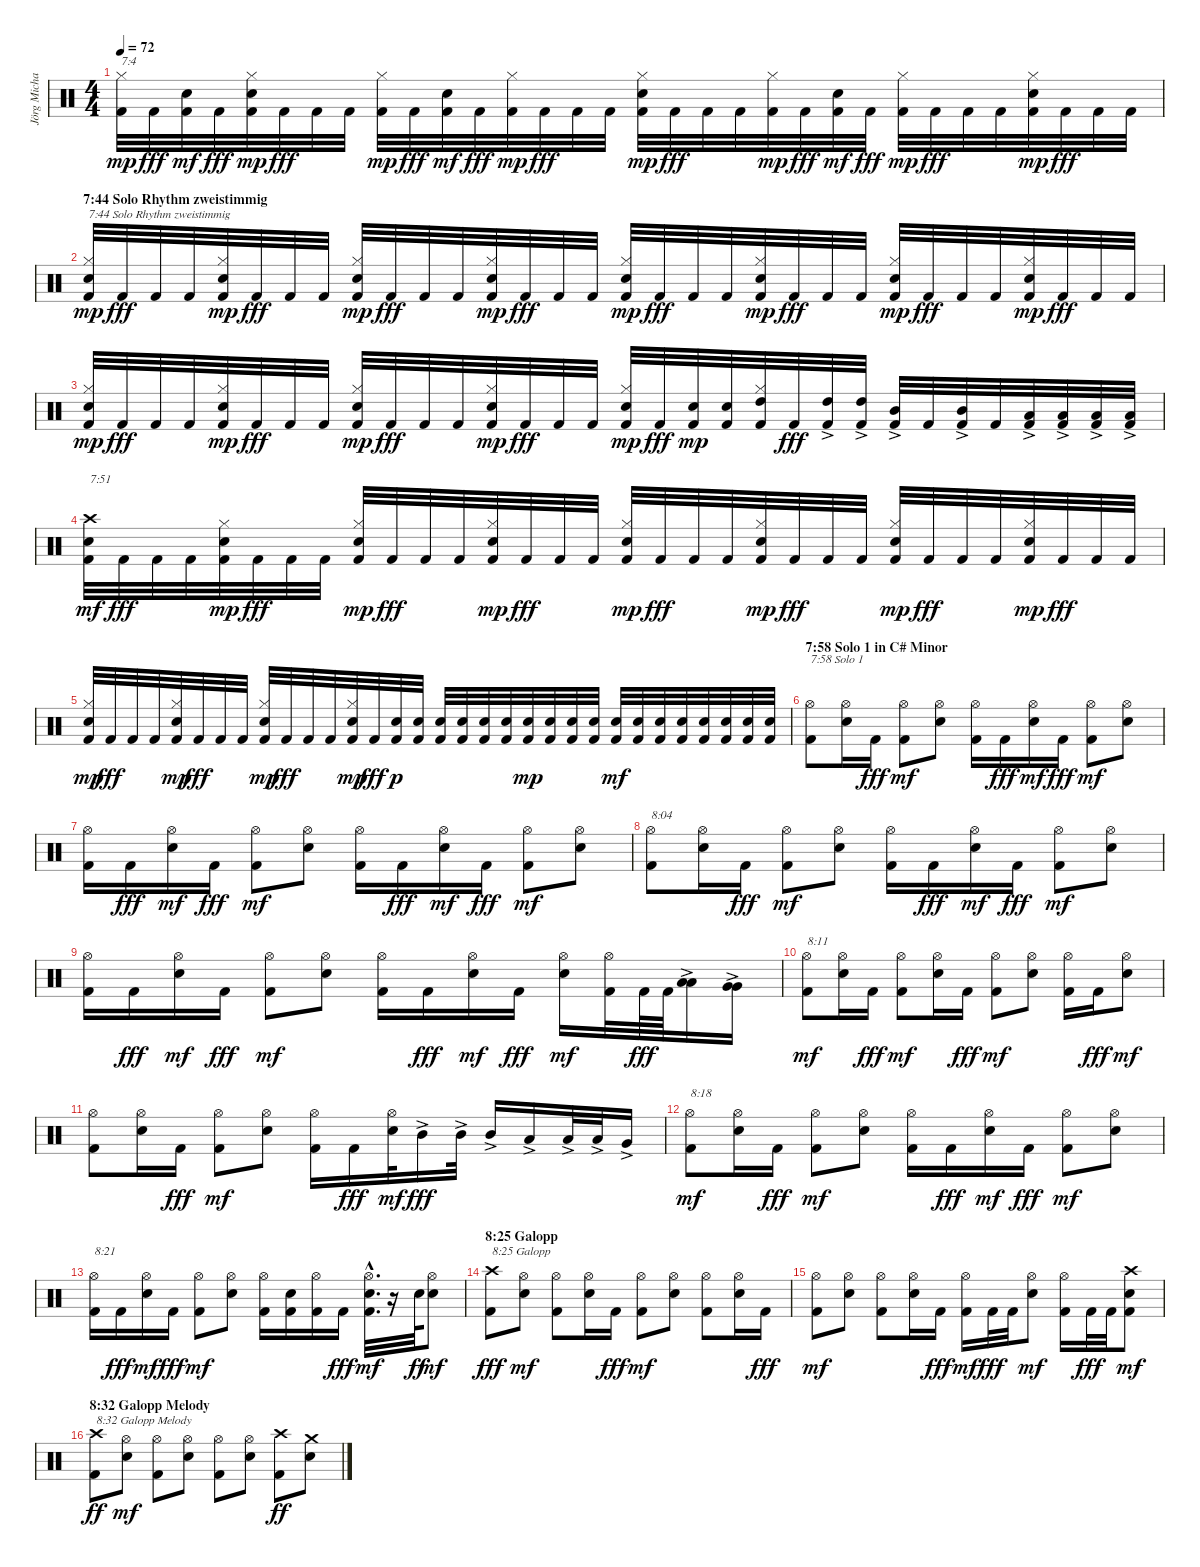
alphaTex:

\track ("Jörg Michael" "Jörg Micha") {instrument percussion}
\staff {score}
\articulation defaults
\ts (4 4)
\tempo 72
\clef neutral
\ks c
("Kick (hit) 2" "Hi-Hat (closed)").32{txt "7:4" dy mp} "Kick (hit) 2".32{dy fff} ("Kick (hit) 2" "Snare (hit) 2").32{dy mf} "Kick (hit) 2".32{dy fff} ("Kick (hit) 2" "Snare (hit) 2" "Hi-Hat (closed)").32{dy mp} "Kick (hit) 2".32{dy fff} "Kick (hit) 2".32 "Kick (hit) 2".32 ("Kick (hit) 2" "Hi-Hat (closed)").32{dy mp} "Kick (hit) 2".32{dy fff} ("Kick (hit) 2" "Snare (hit) 2").32{dy mf} "Kick (hit) 2".32{dy fff} ("Kick (hit) 2" "Hi-Hat (closed)").32{dy mp} "Kick (hit) 2".32{dy fff} "Kick (hit) 2".32 "Kick (hit) 2".32 ("Kick (hit) 2" "Snare (hit) 2" "Hi-Hat (closed)").32{dy mp} "Kick (hit) 2".32{dy fff} "Kick (hit) 2".32 "Kick (hit) 2".32 ("Kick (hit) 2" "Hi-Hat (closed)").32{dy mp} "Kick (hit) 2".32{dy fff} ("Kick (hit) 2" "Snare (hit) 2").32{dy mf} "Kick (hit) 2".32{dy fff} ("Kick (hit) 2" "Hi-Hat (closed)").32{dy mp} "Kick (hit) 2".32{dy fff} "Kick (hit) 2".32 "Kick (hit) 2".32 ("Kick (hit) 2" "Snare (hit) 2" "Hi-Hat (closed)").32{dy mp} "Kick (hit) 2".32{dy fff} "Kick (hit) 2".32 "Kick (hit) 2".32 |
\section ("" "7:44 Solo Rhythm zweistimmig")
("Kick (hit) 2" "Snare (hit) 2" "Hi-Hat (closed)").32{txt "7:44 Solo Rhythm zweistimmig" dy mp} "Kick (hit) 2".32{dy fff} "Kick (hit) 2".32 "Kick (hit) 2".32 ("Kick (hit) 2" "Snare (hit) 2" "Hi-Hat (closed)").32{dy mp} "Kick (hit) 2".32{dy fff} "Kick (hit) 2".32 "Kick (hit) 2".32 ("Kick (hit) 2" "Snare (hit) 2" "Hi-Hat (closed)").32{dy mp} "Kick (hit) 2".32{dy fff} "Kick (hit) 2".32 "Kick (hit) 2".32 ("Kick (hit) 2" "Snare (hit) 2" "Hi-Hat (closed)").32{dy mp} "Kick (hit) 2".32{dy fff} "Kick (hit) 2".32 "Kick (hit) 2".32 ("Kick (hit) 2" "Snare (hit) 2" "Hi-Hat (closed)").32{dy mp} "Kick (hit) 2".32{dy fff} "Kick (hit) 2".32 "Kick (hit) 2".32 ("Kick (hit) 2" "Snare (hit) 2" "Hi-Hat (closed)").32{dy mp} "Kick (hit) 2".32{dy fff} "Kick (hit) 2".32 "Kick (hit) 2".32 ("Kick (hit) 2" "Snare (hit) 2" "Hi-Hat (closed)").32{dy mp} "Kick (hit) 2".32{dy fff} "Kick (hit) 2".32 "Kick (hit) 2".32 ("Kick (hit) 2" "Snare (hit) 2" "Hi-Hat (closed)").32{dy mp} "Kick (hit) 2".32{dy fff} "Kick (hit) 2".32 "Kick (hit) 2".32 |
("Kick (hit) 2" "Snare (hit) 2" "Hi-Hat (closed)").32{dy mp} "Kick (hit) 2".32{dy fff} "Kick (hit) 2".32 "Kick (hit) 2".32 ("Kick (hit) 2" "Snare (hit) 2" "Hi-Hat (closed)").32{dy mp} "Kick (hit) 2".32{dy fff} "Kick (hit) 2".32 "Kick (hit) 2".32 ("Kick (hit) 2" "Snare (hit) 2" "Hi-Hat (closed)").32{dy mp} "Kick (hit) 2".32{dy fff} "Kick (hit) 2".32 "Kick (hit) 2".32 ("Kick (hit) 2" "Snare (hit) 2" "Hi-Hat (closed)").32{dy mp} "Kick (hit) 2".32{dy fff} "Kick (hit) 2".32 "Kick (hit) 2".32 ("Kick (hit) 2" "Snare (hit) 2" "Hi-Hat (closed)").32{dy mp} "Kick (hit) 2".32{dy fff} ("Kick (hit) 2" "Snare (hit) 2").32{dy mp} ("Kick (hit) 2" "Snare (hit) 2").32 ("Kick (hit) 2" "High Tom (hit)" "Hi-Hat (closed)").32 "Kick (hit) 2".32{dy fff} ("Kick (hit) 2" "High Tom (hit)"{ac}).32 ("Kick (hit) 2" "High Tom (hit)"{ac}).32 ("Kick (hit) 2" "Mid Tom (hit)"{ac}).32 "Kick (hit) 2".32 ("Kick (hit) 2" "Mid Tom (hit)"{ac}).32 "Kick (hit) 2".32 ("Kick (hit) 2" "Low Tom (hit)"{ac}).32 ("Kick (hit) 2" "Low Tom (hit)"{ac}).32 ("Kick (hit) 2" "Low Tom (hit)"{ac}).32 ("Kick (hit) 2" "Low Tom (hit)"{ac}).32 |
("Kick (hit) 2" "Snare (hit) 2" "Crash high (hit)").32{txt "7:51" dy mf} "Kick (hit) 2".32{dy fff} "Kick (hit) 2".32 "Kick (hit) 2".32 ("Kick (hit) 2" "Snare (hit) 2" "Hi-Hat (closed)").32{dy mp} "Kick (hit) 2".32{dy fff} "Kick (hit) 2".32 "Kick (hit) 2".32 ("Kick (hit) 2" "Snare (hit) 2" "Hi-Hat (closed)").32{dy mp} "Kick (hit) 2".32{dy fff} "Kick (hit) 2".32 "Kick (hit) 2".32 ("Kick (hit) 2" "Snare (hit) 2" "Hi-Hat (closed)").32{dy mp} "Kick (hit) 2".32{dy fff} "Kick (hit) 2".32 "Kick (hit) 2".32 ("Kick (hit) 2" "Snare (hit) 2" "Hi-Hat (closed)").32{dy mp} "Kick (hit) 2".32{dy fff} "Kick (hit) 2".32 "Kick (hit) 2".32 ("Kick (hit) 2" "Snare (hit) 2" "Hi-Hat (closed)").32{dy mp} "Kick (hit) 2".32{dy fff} "Kick (hit) 2".32 "Kick (hit) 2".32 ("Kick (hit) 2" "Snare (hit) 2" "Hi-Hat (closed)").32{dy mp} "Kick (hit) 2".32{dy fff} "Kick (hit) 2".32 "Kick (hit) 2".32 ("Kick (hit) 2" "Snare (hit) 2" "Hi-Hat (closed)").32{dy mp} "Kick (hit) 2".32{dy fff} "Kick (hit) 2".32 "Kick (hit) 2".32 |
("Kick (hit) 2" "Snare (hit) 2" "Hi-Hat (closed)").32{dy mp} "Kick (hit) 2".32{dy fff} "Kick (hit) 2".32 "Kick (hit) 2".32 ("Kick (hit) 2" "Snare (hit) 2" "Hi-Hat (closed)").32{dy mp} "Kick (hit) 2".32{dy fff} "Kick (hit) 2".32 "Kick (hit) 2".32 ("Kick (hit) 2" "Snare (hit) 2" "Hi-Hat (closed)").32{dy mp} "Kick (hit) 2".32{dy fff} "Kick (hit) 2".32 "Kick (hit) 2".32 ("Kick (hit) 2" "Snare (hit) 2" "Hi-Hat (closed)").32{dy mp} "Kick (hit) 2".32{dy fff} ("Kick (hit) 2" "Snare (hit) 2").32{dy p} ("Kick (hit) 2" "Snare (hit) 2").32 ("Kick (hit) 2" "Snare (hit) 2").32 ("Kick (hit) 2" "Snare (hit) 2").32 ("Kick (hit) 2" "Snare (hit) 2").32 ("Kick (hit) 2" "Snare (hit) 2").32 ("Kick (hit) 2" "Snare (hit) 2").32{dy mp} ("Kick (hit) 2" "Snare (hit) 2").32 ("Kick (hit) 2" "Snare (hit) 2").32 ("Kick (hit) 2" "Snare (hit) 2").32 ("Kick (hit) 2" "Snare (hit) 2").32{dy mf} ("Kick (hit) 2" "Snare (hit) 2").32 ("Kick (hit) 2" "Snare (hit) 2").32 ("Kick (hit) 2" "Snare (hit) 2").32 ("Kick (hit) 2" "Snare (hit) 2").32 ("Kick (hit) 2" "Snare (hit) 2").32 ("Kick (hit) 2" "Snare (hit) 2").32 ("Kick (hit) 2" "Snare (hit) 2").32 |
\section ("" "7:58 Solo 1 in C# Minor")
("Kick (hit) 2" "Hi-Hat (open)").8{txt "7:58 Solo 1"} ("Snare (hit) 2" "Hi-Hat (open)").16 "Kick (hit) 2".16{dy fff} ("Kick (hit) 2" "Hi-Hat (open)").8{dy mf} ("Snare (hit) 2" "Hi-Hat (open)").8 ("Kick (hit) 2" "Hi-Hat (open)").16 "Kick (hit) 2".16{dy fff} ("Snare (hit) 2" "Hi-Hat (open)").16{dy mf} "Kick (hit) 2".16{dy fff} ("Kick (hit) 2" "Hi-Hat (open)").8{dy mf} ("Snare (hit) 2" "Hi-Hat (open)").8 |
("Kick (hit) 2" "Hi-Hat (open)").16 "Kick (hit) 2".16{dy fff} ("Snare (hit) 2" "Hi-Hat (open)").16{dy mf} "Kick (hit) 2".16{dy fff} ("Kick (hit) 2" "Hi-Hat (open)").8{dy mf} ("Snare (hit) 2" "Hi-Hat (open)").8 ("Kick (hit) 2" "Hi-Hat (open)").16 "Kick (hit) 2".16{dy fff} ("Snare (hit) 2" "Hi-Hat (open)").16{dy mf} "Kick (hit) 2".16{dy fff} ("Kick (hit) 2" "Hi-Hat (open)").8{dy mf} ("Snare (hit) 2" "Hi-Hat (open)").8 |
("Kick (hit) 2" "Hi-Hat (open)").8{txt "8:04"} ("Snare (hit) 2" "Hi-Hat (open)").16 "Kick (hit) 2".16{dy fff} ("Kick (hit) 2" "Hi-Hat (open)").8{dy mf} ("Snare (hit) 2" "Hi-Hat (open)").8 ("Kick (hit) 2" "Hi-Hat (open)").16 "Kick (hit) 2".16{dy fff} ("Snare (hit) 2" "Hi-Hat (open)").16{dy mf} "Kick (hit) 2".16{dy fff} ("Kick (hit) 2" "Hi-Hat (open)").8{dy mf} ("Snare (hit) 2" "Hi-Hat (open)").8 |
("Kick (hit) 2" "Hi-Hat (open)").16 "Kick (hit) 2".16{dy fff} ("Snare (hit) 2" "Hi-Hat (open)").16{dy mf} "Kick (hit) 2".16{dy fff} ("Kick (hit) 2" "Hi-Hat (open)").8{dy mf} ("Snare (hit) 2" "Hi-Hat (open)").8 ("Kick (hit) 2" "Hi-Hat (open)").16 "Kick (hit) 2".16{dy fff} ("Snare (hit) 2" "Hi-Hat (open)").16{dy mf} "Kick (hit) 2".16{dy fff} ("Snare (hit) 2" "Hi-Hat (open)").16{dy mf} ("Kick (hit) 2" "Hi-Hat (open)").32 "Kick (hit) 2".64{dy fff} "Kick (hit) 2".64 ("Low Tom (hit)"{ac} "Low Tom (hit)"{ac}).16 ("Very Low Tom (hit)"{ac} "Very Low Tom (hit)"{ac}).16 |
("Kick (hit) 2" "Hi-Hat (open)").8{txt "8:11" dy mf} ("Snare (hit) 2" "Hi-Hat (open)").16 "Kick (hit) 2".16{dy fff} ("Kick (hit) 2" "Hi-Hat (open)").8{dy mf} ("Snare (hit) 2" "Hi-Hat (open)").16 "Kick (hit) 2".16{dy fff} ("Kick (hit) 2" "Hi-Hat (open)").8{dy mf} ("Snare (hit) 2" "Hi-Hat (open)").8 ("Kick (hit) 2" "Hi-Hat (open)").16 "Kick (hit) 2".16{dy fff} ("Snare (hit) 2" "Hi-Hat (open)").8{dy mf} |
("Kick (hit) 2" "Hi-Hat (open)").8 ("Snare (hit) 2" "Hi-Hat (open)").16 "Kick (hit) 2".16{dy fff} ("Kick (hit) 2" "Hi-Hat (open)").8{dy mf} ("Snare (hit) 2" "Hi-Hat (open)").8 ("Kick (hit) 2" "Hi-Hat (open)").16 "Kick (hit) 2".16{dy fff} ("Snare (hit) 2" "Hi-Hat (open)").32{dy mf} "Mid Tom (hit)"{ac}.16{dy fff} "Mid Tom (hit)"{ac}.32 "Mid Tom (hit)"{ac}.16 "Low Tom (hit)"{ac}.16 "Low Tom (hit)"{ac}.32 "Low Tom (hit)"{ac}.32 "Very Low Tom (hit)"{ac}.16 |
("Kick (hit) 2" "Hi-Hat (open)").8{txt "8:18" dy mf} ("Snare (hit) 2" "Hi-Hat (open)").16 "Kick (hit) 2".16{dy fff} ("Kick (hit) 2" "Hi-Hat (open)").8{dy mf} ("Snare (hit) 2" "Hi-Hat (open)").8 ("Kick (hit) 2" "Hi-Hat (open)").16 "Kick (hit) 2".16{dy fff} ("Snare (hit) 2" "Hi-Hat (open)").16{dy mf} "Kick (hit) 2".16{dy fff} ("Kick (hit) 2" "Hi-Hat (open)").8{dy mf} ("Snare (hit) 2" "Hi-Hat (open)").8 |
("Kick (hit) 2" "Hi-Hat (open)").16{txt "8:21"} "Kick (hit) 2".16{dy fff} ("Snare (hit) 2" "Hi-Hat (open)").16{dy mf} "Kick (hit) 2".16{dy fff} ("Kick (hit) 2" "Hi-Hat (open)").8{dy mf} ("Snare (hit) 2" "Hi-Hat (open)").8 ("Kick (hit) 2" "Hi-Hat (open)").16 ("Kick (hit) 2" "Snare (hit) 2").16 ("Kick (hit) 2" "Hi-Hat (open)").16 "Kick (hit) 2".16{dy fff} ("Kick (hit) 2"{hac} "Snare (hit) 2"{hac} "Hi-Hat (open)"{hac}).32{d dy mf} r.16 "Snare (hit) 2".64{dy ff} ("Snare (hit) 2" "Hi-Hat (open)").8{dy mf} |
\section ("" "8:25 Galopp")
("Kick (hit) 2" "Crash high (hit)").8{txt "8:25 Galopp" dy fff} ("Snare (hit) 2" "Hi-Hat (open)").8{dy mf} ("Kick (hit) 2" "Hi-Hat (open)").8 ("Snare (hit) 2" "Hi-Hat (open)").16 "Kick (hit) 2".16{dy fff} ("Kick (hit) 2" "Hi-Hat (open)").8{dy mf} ("Snare (hit) 2" "Hi-Hat (open)").8 ("Kick (hit) 2" "Hi-Hat (open)").8 ("Snare (hit) 2" "Hi-Hat (open)").16 "Kick (hit) 2".16{dy fff} |
("Kick (hit) 2" "Hi-Hat (open)").8{dy mf} ("Snare (hit) 2" "Hi-Hat (open)").8 ("Kick (hit) 2" "Hi-Hat (open)").8 ("Snare (hit) 2" "Hi-Hat (open)").16 "Kick (hit) 2".16{dy fff} ("Kick (hit) 2" "Hi-Hat (open)").16{dy mf} "Kick (hit) 2".32{dy fff} "Kick (hit) 2".32 ("Snare (hit) 2" "Hi-Hat (open)").8{dy mf} ("Kick (hit) 2" "Hi-Hat (open)").16 "Kick (hit) 2".32{dy fff} "Kick (hit) 2".32 ("Kick (hit) 2" "Snare (hit) 2" "Crash high (hit)").8{dy mf} |
\section ("" "8:32 Galopp Melody")
("Kick (hit) 2" "Crash high (hit)").8{txt "8:32 Galopp Melody" dy ff} ("Snare (hit) 2" "Hi-Hat (open)").8{dy mf} ("Kick (hit) 2" "Hi-Hat (open)").8 ("Snare (hit) 2" "Hi-Hat (open)").8 ("Kick (hit) 2" "Hi-Hat (open)").8 ("Snare (hit) 2" "Hi-Hat (open)").8 ("Kick (hit) 2" "Crash high (hit)").8{dy ff} ("Snare (hit) 2" "Crash medium (hit)").8
